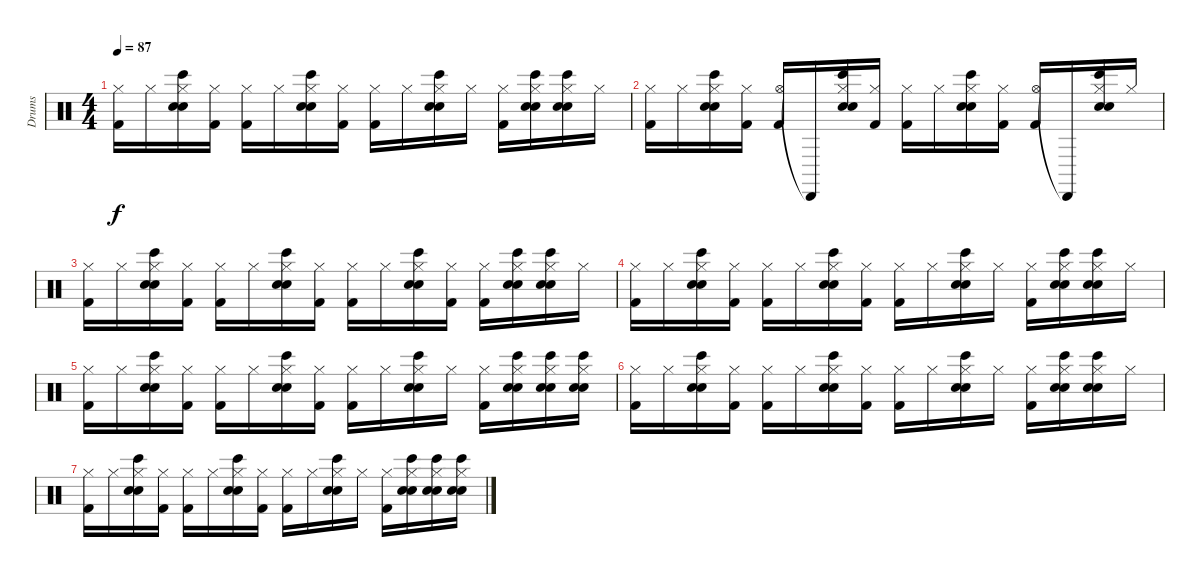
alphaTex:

\track ("Drums" "Drums") {instrument percussion}
\staff {score}
\articulation defaults
\ts (4 4)
\tempo 87
\clef neutral
\ks c
("Hi-Hat (closed)" "Kick (hit) 2").16{dy f} "Hi-Hat (closed)".16 ("Hi-Hat (closed)" "Electric Snare (hit)" "Bongo High (hit)" "Snare (hit) 2").16 ("Hi-Hat (closed)" "Kick (hit) 2").16 ("Hi-Hat (closed)" "Kick (hit) 2").16 "Hi-Hat (closed)".16 ("Hi-Hat (closed)" "Electric Snare (hit)" "Bongo High (hit)" "Snare (hit) 2").16 ("Hi-Hat (closed)" "Kick (hit) 2").16 ("Hi-Hat (closed)" "Kick (hit) 2").16 "Hi-Hat (closed)".16 ("Hi-Hat (closed)" "Electric Snare (hit)" "Bongo High (hit)" "Snare (hit) 2").16 "Hi-Hat (closed)".16 ("Hi-Hat (closed)" "Kick (hit) 2").16 ("Hi-Hat (closed)" "Electric Snare (hit)" "Bongo High (hit)" "Snare (hit) 2").16 ("Hi-Hat (closed)" "Electric Snare (hit)" "Bongo High (hit)" "Snare (hit) 2").16 "Hi-Hat (closed)".16 |
("Hi-Hat (closed)" "Kick (hit) 2").16 "Hi-Hat (closed)".16 ("Hi-Hat (closed)" "Electric Snare (hit)" "Bongo High (hit)" "Snare (hit) 2").16 ("Hi-Hat (closed)" "Kick (hit) 2").16 ("Hi-Hat (open)" "Kick (hit) 2").16 "Cabasa (hit)"{t}.16 ("Hi-Hat (closed)" "Electric Snare (hit)" "Bongo High (hit)" "Snare (hit) 2").16 ("Hi-Hat (closed)" "Kick (hit) 2").16 ("Hi-Hat (closed)" "Kick (hit) 2").16 "Hi-Hat (closed)".16 ("Hi-Hat (closed)" "Electric Snare (hit)" "Bongo High (hit)" "Snare (hit) 2").16 ("Hi-Hat (closed)" "Kick (hit) 2").16 ("Hi-Hat (open)" "Kick (hit) 2").16 "Cabasa (hit)"{t}.16 ("Hi-Hat (closed)" "Electric Snare (hit)" "Bongo High (hit)" "Snare (hit) 2").16 "Hi-Hat (closed)".16 |
("Hi-Hat (closed)" "Kick (hit) 2").16 "Hi-Hat (closed)".16 ("Hi-Hat (closed)" "Electric Snare (hit)" "Bongo High (hit)" "Snare (hit) 2").16 ("Hi-Hat (closed)" "Kick (hit) 2").16 ("Hi-Hat (closed)" "Kick (hit) 2").16 "Hi-Hat (closed)".16 ("Hi-Hat (closed)" "Electric Snare (hit)" "Bongo High (hit)" "Snare (hit) 2").16 ("Hi-Hat (closed)" "Kick (hit) 2").16 ("Hi-Hat (closed)" "Kick (hit) 2").16 "Hi-Hat (closed)".16 ("Hi-Hat (closed)" "Electric Snare (hit)" "Bongo High (hit)" "Snare (hit) 2").16 ("Hi-Hat (closed)" "Kick (hit) 2").16 ("Hi-Hat (closed)" "Kick (hit) 2").16 ("Hi-Hat (closed)" "Electric Snare (hit)" "Bongo High (hit)" "Snare (hit) 2").16 ("Hi-Hat (closed)" "Electric Snare (hit)" "Bongo High (hit)" "Snare (hit) 2").16 "Hi-Hat (closed)".16 |
("Hi-Hat (closed)" "Kick (hit) 2").16 "Hi-Hat (closed)".16 ("Hi-Hat (closed)" "Electric Snare (hit)" "Bongo High (hit)" "Snare (hit) 2").16 ("Hi-Hat (closed)" "Kick (hit) 2").16 ("Hi-Hat (closed)" "Kick (hit) 2").16 "Hi-Hat (closed)".16 ("Hi-Hat (closed)" "Electric Snare (hit)" "Bongo High (hit)" "Snare (hit) 2").16 ("Hi-Hat (closed)" "Kick (hit) 2").16 ("Hi-Hat (closed)" "Kick (hit) 2").16 "Hi-Hat (closed)".16 ("Hi-Hat (closed)" "Electric Snare (hit)" "Bongo High (hit)" "Snare (hit) 2").16 "Hi-Hat (closed)".16 ("Hi-Hat (closed)" "Kick (hit) 2").16 ("Hi-Hat (closed)" "Electric Snare (hit)" "Bongo High (hit)" "Snare (hit) 2").16 ("Hi-Hat (closed)" "Electric Snare (hit)" "Bongo High (hit)" "Snare (hit) 2").16 "Hi-Hat (closed)".16 |
("Hi-Hat (closed)" "Kick (hit) 2").16 "Hi-Hat (closed)".16 ("Hi-Hat (closed)" "Electric Snare (hit)" "Bongo High (hit)" "Snare (hit) 2").16 ("Hi-Hat (closed)" "Kick (hit) 2").16 ("Hi-Hat (closed)" "Kick (hit) 2").16 "Hi-Hat (closed)".16 ("Hi-Hat (closed)" "Electric Snare (hit)" "Bongo High (hit)" "Snare (hit) 2").16 ("Hi-Hat (closed)" "Kick (hit) 2").16 ("Hi-Hat (closed)" "Kick (hit) 2").16 "Hi-Hat (closed)".16 ("Hi-Hat (closed)" "Electric Snare (hit)" "Bongo High (hit)" "Snare (hit) 2").16 "Hi-Hat (closed)".16 ("Hi-Hat (closed)" "Kick (hit) 2").16 ("Hi-Hat (closed)" "Electric Snare (hit)" "Bongo High (hit)" "Snare (hit) 2").16 ("Hi-Hat (closed)" "Electric Snare (hit)" "Bongo High (hit)" "Snare (hit) 2").16 ("Hi-Hat (closed)" "Electric Snare (hit)" "Bongo High (hit)" "Snare (hit) 2").16 |
("Hi-Hat (closed)" "Kick (hit) 2").16 "Hi-Hat (closed)".16 ("Hi-Hat (closed)" "Electric Snare (hit)" "Bongo High (hit)" "Snare (hit) 2").16 ("Hi-Hat (closed)" "Kick (hit) 2").16 ("Hi-Hat (closed)" "Kick (hit) 2").16 "Hi-Hat (closed)".16 ("Hi-Hat (closed)" "Electric Snare (hit)" "Bongo High (hit)" "Snare (hit) 2").16 ("Hi-Hat (closed)" "Kick (hit) 2").16 ("Hi-Hat (closed)" "Kick (hit) 2").16 "Hi-Hat (closed)".16 ("Hi-Hat (closed)" "Electric Snare (hit)" "Bongo High (hit)" "Snare (hit) 2").16 "Hi-Hat (closed)".16 ("Hi-Hat (closed)" "Kick (hit) 2").16 ("Hi-Hat (closed)" "Electric Snare (hit)" "Bongo High (hit)" "Snare (hit) 2").16 ("Hi-Hat (closed)" "Electric Snare (hit)" "Bongo High (hit)" "Snare (hit) 2").16 "Hi-Hat (closed)".16 |
("Hi-Hat (closed)" "Kick (hit) 2").16 "Hi-Hat (closed)".16 ("Hi-Hat (closed)" "Electric Snare (hit)" "Bongo High (hit)" "Snare (hit) 2").16 ("Hi-Hat (closed)" "Kick (hit) 2").16 ("Hi-Hat (closed)" "Kick (hit) 2").16 "Hi-Hat (closed)".16 ("Hi-Hat (closed)" "Electric Snare (hit)" "Bongo High (hit)" "Snare (hit) 2").16 ("Hi-Hat (closed)" "Kick (hit) 2").16 ("Hi-Hat (closed)" "Kick (hit) 2").16 "Hi-Hat (closed)".16 ("Hi-Hat (closed)" "Electric Snare (hit)" "Bongo High (hit)" "Snare (hit) 2").16 "Hi-Hat (closed)".16 ("Hi-Hat (closed)" "Kick (hit) 2").16 ("Hi-Hat (closed)" "Electric Snare (hit)" "Bongo High (hit)" "Snare (hit) 2").16 ("Hi-Hat (closed)" "Electric Snare (hit)" "Bongo High (hit)" "Snare (hit) 2").16 ("Hi-Hat (closed)" "Electric Snare (hit)" "Bongo High (hit)" "Snare (hit) 2").16
